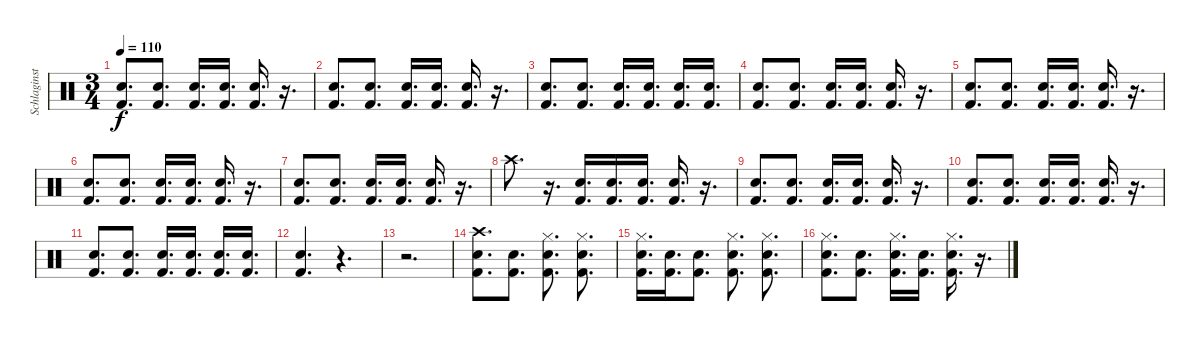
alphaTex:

\track ("Schlaginstrumente - Auswahl" "Schlaginst") {instrument percussion}
\staff {score}
\articulation defaults
\ts (3 4)
\tempo 110
\clef neutral
\ks c
("Electric Snare (hit)" "Kick (hit) 2").8{d dy f} ("Snare (hit) 2" "Kick (hit) 2").8{d} ("Electric Snare (hit)" "Kick (hit) 2").16{d} ("Electric Snare (hit)" "Kick (hit) 2").16{d} ("Snare (hit) 2" "Kick (hit) 2").16{d} r.16{d} |
("Electric Snare (hit)" "Kick (hit) 2").8{d} ("Snare (hit) 2" "Kick (hit) 2").8{d} ("Electric Snare (hit)" "Kick (hit) 2").16{d} ("Electric Snare (hit)" "Kick (hit) 2").16{d} ("Snare (hit) 2" "Kick (hit) 2").16{d} r.16{d} |
("Electric Snare (hit)" "Kick (hit) 2").8{d} ("Snare (hit) 2" "Kick (hit) 2").8{d} ("Electric Snare (hit)" "Kick (hit) 2").16{d} ("Snare (hit) 2" "Kick (hit) 2").16{d} ("Electric Snare (hit)" "Kick (hit) 2").16{d} ("Snare (hit) 2" "Kick (hit) 2").16{d} |
("Electric Snare (hit)" "Kick (hit) 2").8{d} ("Snare (hit) 2" "Kick (hit) 2").8{d} ("Electric Snare (hit)" "Kick (hit) 2").16{d} ("Electric Snare (hit)" "Kick (hit) 2").16{d} ("Snare (hit) 2" "Kick (hit) 2").16{d} r.16{d} |
("Electric Snare (hit)" "Kick (hit) 2").8{d} ("Snare (hit) 2" "Kick (hit) 2").8{d} ("Electric Snare (hit)" "Kick (hit) 2").16{d} ("Electric Snare (hit)" "Kick (hit) 2").16{d} ("Snare (hit) 2" "Kick (hit) 2").16{d} r.16{d} |
("Electric Snare (hit)" "Kick (hit) 2").8{d} ("Snare (hit) 2" "Kick (hit) 2").8{d} ("Electric Snare (hit)" "Kick (hit) 2").16{d} ("Electric Snare (hit)" "Kick (hit) 2").16{d} ("Snare (hit) 2" "Kick (hit) 2").16{d} r.16{d} |
("Electric Snare (hit)" "Kick (hit) 2").8{d} ("Snare (hit) 2" "Kick (hit) 2").8{d} ("Electric Snare (hit)" "Kick (hit) 2").16{d} ("Electric Snare (hit)" "Kick (hit) 2").16{d} ("Snare (hit) 2" "Kick (hit) 2").16{d} r.16{d} |
"Crash high (hit)".8{d} r.16{d} ("Snare (hit) 2" "Kick (hit) 2").16{d} ("Electric Snare (hit)" "Kick (hit) 2").16{d} ("Electric Snare (hit)" "Kick (hit) 2").16{d} ("Snare (hit) 2" "Kick (hit) 2").16{d} r.16{d} |
("Electric Snare (hit)" "Kick (hit) 2").8{d} ("Snare (hit) 2" "Kick (hit) 2").8{d} ("Electric Snare (hit)" "Kick (hit) 2").16{d} ("Electric Snare (hit)" "Kick (hit) 2").16{d} ("Snare (hit) 2" "Kick (hit) 2").16{d} r.16{d} |
("Electric Snare (hit)" "Kick (hit) 2").8{d} ("Snare (hit) 2" "Kick (hit) 2").8{d} ("Electric Snare (hit)" "Kick (hit) 2").16{d} ("Electric Snare (hit)" "Kick (hit) 2").16{d} ("Snare (hit) 2" "Kick (hit) 2").16{d} r.16{d} |
("Electric Snare (hit)" "Kick (hit) 2").8{d} ("Snare (hit) 2" "Kick (hit) 2").8{d} ("Electric Snare (hit)" "Kick (hit) 2").16{d} ("Snare (hit) 2" "Kick (hit) 2").16{d} ("Electric Snare (hit)" "Kick (hit) 2").16{d} ("Snare (hit) 2" "Kick (hit) 2").16{d} |
("Electric Snare (hit)" "Kick (hit) 2").4{d} r.4{d} |
r.2{d} |
("Crash high (hit)" "Electric Snare (hit)" "Kick (hit) 2").8{d} ("Snare (hit) 2" "Kick (hit) 2").8{d} ("Hi-Hat (closed)" "Electric Snare (hit)" "Kick (hit) 2").8{d} ("Hi-Hat (closed)" "Snare (hit) 2" "Kick (hit) 2").8{d} |
("Hi-Hat (closed)" "Electric Snare (hit)" "Kick (hit) 2").16{d} ("Electric Snare (hit)" "Kick (hit) 2").16{d} ("Snare (hit) 2" "Kick (hit) 2").8{d} ("Hi-Hat (closed)" "Electric Snare (hit)" "Kick (hit) 2").8{d} ("Hi-Hat (closed)" "Snare (hit) 2" "Kick (hit) 2").8{d} |
("Hi-Hat (closed)" "Electric Snare (hit)" "Kick (hit) 2").8{d} ("Snare (hit) 2" "Kick (hit) 2").8{d} ("Hi-Hat (closed)" "Electric Snare (hit)" "Kick (hit) 2").16{d} ("Electric Snare (hit)" "Kick (hit) 2").16{d} ("Hi-Hat (closed)" "Snare (hit) 2" "Kick (hit) 2").16{d} r.16{d}
